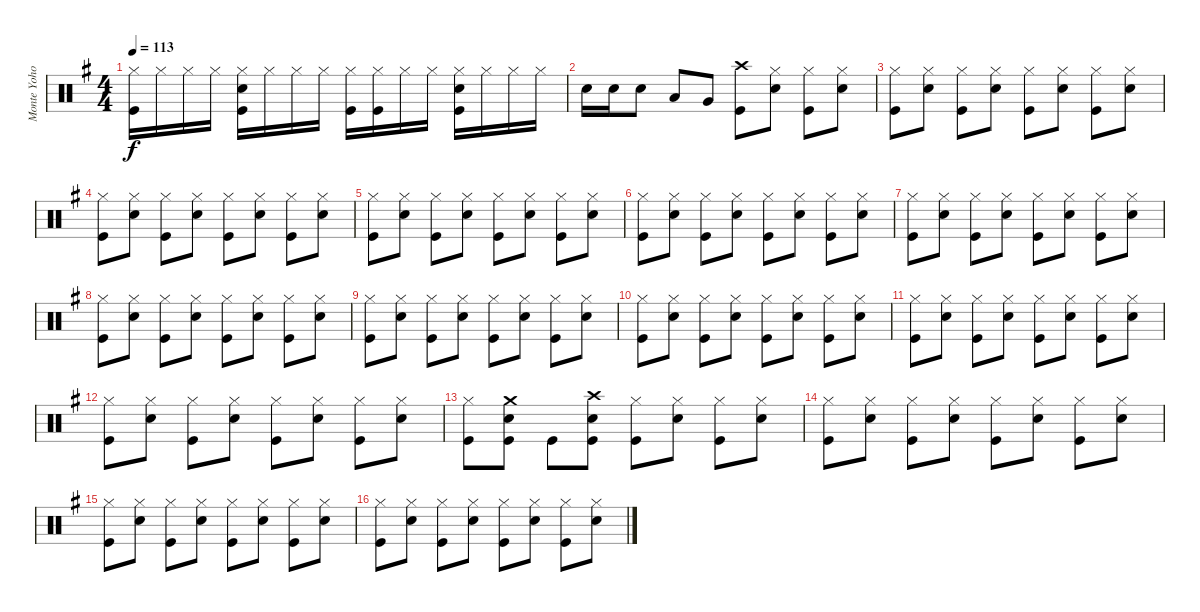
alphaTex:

\track ("Monte Yoho Drums" "Monte Yoho") {instrument percussion}
\staff {score}
\articulation defaults
\ts (4 4)
\tempo 113
\clef neutral
\ks eminor
("Hi-Hat (closed)" "Kick (hit)").16{dy f} "Hi-Hat (closed)".16 "Hi-Hat (closed)".16 "Hi-Hat (closed)".16 ("Hi-Hat (closed)" "Snare (hit) 2" "Kick (hit)").16 "Hi-Hat (closed)".16 "Hi-Hat (closed)".16 "Hi-Hat (closed)".16 ("Hi-Hat (closed)" "Kick (hit)").16 ("Hi-Hat (closed)" "Kick (hit)").16 "Hi-Hat (closed)".16 "Hi-Hat (closed)".16 ("Hi-Hat (closed)" "Snare (hit) 2" "Kick (hit)").16 "Hi-Hat (closed)".16 "Hi-Hat (closed)".16 "Hi-Hat (closed)".16 |
"Snare (hit) 2".16 "Snare (hit) 2".16 "Snare (hit) 2".8 "Low Tom (hit)".8 "Very Low Tom (hit)".8 ("Crash high (hit)" "Kick (hit)").8 ("Hi-Hat (closed)" "Snare (hit) 2").8 ("Hi-Hat (closed)" "Kick (hit)").8 ("Hi-Hat (closed)" "Snare (hit) 2").8 |
("Hi-Hat (closed)" "Kick (hit)").8 ("Hi-Hat (closed)" "Snare (hit) 2").8 ("Hi-Hat (closed)" "Kick (hit)").8 ("Hi-Hat (closed)" "Snare (hit) 2").8 ("Hi-Hat (closed)" "Kick (hit)").8 ("Hi-Hat (closed)" "Snare (hit) 2").8 ("Hi-Hat (closed)" "Kick (hit)").8 ("Hi-Hat (closed)" "Snare (hit) 2").8 |
("Hi-Hat (closed)" "Kick (hit)").8 ("Hi-Hat (closed)" "Snare (hit) 2").8 ("Hi-Hat (closed)" "Kick (hit)").8 ("Hi-Hat (closed)" "Snare (hit) 2").8 ("Hi-Hat (closed)" "Kick (hit)").8 ("Hi-Hat (closed)" "Snare (hit) 2").8 ("Hi-Hat (closed)" "Kick (hit)").8 ("Hi-Hat (closed)" "Snare (hit) 2").8 |
("Hi-Hat (closed)" "Kick (hit)").8 ("Hi-Hat (closed)" "Snare (hit) 2").8 ("Hi-Hat (closed)" "Kick (hit)").8 ("Hi-Hat (closed)" "Snare (hit) 2").8 ("Hi-Hat (closed)" "Kick (hit)").8 ("Hi-Hat (closed)" "Snare (hit) 2").8 ("Hi-Hat (closed)" "Kick (hit)").8 ("Hi-Hat (closed)" "Snare (hit) 2").8 |
("Hi-Hat (closed)" "Kick (hit)").8 ("Hi-Hat (closed)" "Snare (hit) 2").8 ("Hi-Hat (closed)" "Kick (hit)").8 ("Hi-Hat (closed)" "Snare (hit) 2").8 ("Hi-Hat (closed)" "Kick (hit)").8 ("Hi-Hat (closed)" "Snare (hit) 2").8 ("Hi-Hat (closed)" "Kick (hit)").8 ("Hi-Hat (closed)" "Snare (hit) 2").8 |
("Hi-Hat (closed)" "Kick (hit)").8 ("Hi-Hat (closed)" "Snare (hit) 2").8 ("Hi-Hat (closed)" "Kick (hit)").8 ("Hi-Hat (closed)" "Snare (hit) 2").8 ("Hi-Hat (closed)" "Kick (hit)").8 ("Hi-Hat (closed)" "Snare (hit) 2").8 ("Hi-Hat (closed)" "Kick (hit)").8 ("Hi-Hat (closed)" "Snare (hit) 2").8 |
("Hi-Hat (closed)" "Kick (hit)").8 ("Hi-Hat (closed)" "Snare (hit) 2").8 ("Hi-Hat (closed)" "Kick (hit)").8 ("Hi-Hat (closed)" "Snare (hit) 2").8 ("Hi-Hat (closed)" "Kick (hit)").8 ("Hi-Hat (closed)" "Snare (hit) 2").8 ("Hi-Hat (closed)" "Kick (hit)").8 ("Hi-Hat (closed)" "Snare (hit) 2").8 |
("Hi-Hat (closed)" "Kick (hit)").8 ("Hi-Hat (closed)" "Snare (hit) 2").8 ("Hi-Hat (closed)" "Kick (hit)").8 ("Hi-Hat (closed)" "Snare (hit) 2").8 ("Hi-Hat (closed)" "Kick (hit)").8 ("Hi-Hat (closed)" "Snare (hit) 2").8 ("Hi-Hat (closed)" "Kick (hit)").8 ("Hi-Hat (closed)" "Snare (hit) 2").8 |
("Hi-Hat (closed)" "Kick (hit)").8 ("Hi-Hat (closed)" "Snare (hit) 2").8 ("Hi-Hat (closed)" "Kick (hit)").8 ("Hi-Hat (closed)" "Snare (hit) 2").8 ("Hi-Hat (closed)" "Kick (hit)").8 ("Hi-Hat (closed)" "Snare (hit) 2").8 ("Hi-Hat (closed)" "Kick (hit)").8 ("Hi-Hat (closed)" "Snare (hit) 2").8 |
("Hi-Hat (closed)" "Kick (hit)").8 ("Hi-Hat (closed)" "Snare (hit) 2").8 ("Hi-Hat (closed)" "Kick (hit)").8 ("Hi-Hat (closed)" "Snare (hit) 2").8 ("Hi-Hat (closed)" "Kick (hit)").8 ("Hi-Hat (closed)" "Snare (hit) 2").8 ("Hi-Hat (closed)" "Kick (hit)").8 ("Hi-Hat (closed)" "Snare (hit) 2").8 |
("Hi-Hat (closed)" "Kick (hit)").8 ("Hi-Hat (closed)" "Snare (hit) 2").8 ("Hi-Hat (closed)" "Kick (hit)").8 ("Hi-Hat (closed)" "Snare (hit) 2").8 ("Hi-Hat (closed)" "Kick (hit)").8 ("Hi-Hat (closed)" "Snare (hit) 2").8 ("Hi-Hat (closed)" "Kick (hit)").8 ("Hi-Hat (closed)" "Snare (hit) 2").8 |
("Hi-Hat (closed)" "Kick (hit)").8 ("Crash medium (hit)" "Snare (hit) 2" "Kick (hit)").8 "Kick (hit)".8 ("Crash high (hit)" "Snare (hit) 2" "Kick (hit)").8 ("Hi-Hat (closed)" "Kick (hit)").8 ("Hi-Hat (closed)" "Snare (hit) 2").8 ("Hi-Hat (closed)" "Kick (hit)").8 ("Hi-Hat (closed)" "Snare (hit) 2").8 |
("Hi-Hat (closed)" "Kick (hit)").8 ("Hi-Hat (closed)" "Snare (hit) 2").8 ("Hi-Hat (closed)" "Kick (hit)").8 ("Hi-Hat (closed)" "Snare (hit) 2").8 ("Hi-Hat (closed)" "Kick (hit)").8 ("Hi-Hat (closed)" "Snare (hit) 2").8 ("Hi-Hat (closed)" "Kick (hit)").8 ("Hi-Hat (closed)" "Snare (hit) 2").8 |
("Hi-Hat (closed)" "Kick (hit)").8 ("Hi-Hat (closed)" "Snare (hit) 2").8 ("Hi-Hat (closed)" "Kick (hit)").8 ("Hi-Hat (closed)" "Snare (hit) 2").8 ("Hi-Hat (closed)" "Kick (hit)").8 ("Hi-Hat (closed)" "Snare (hit) 2").8 ("Hi-Hat (closed)" "Kick (hit)").8 ("Hi-Hat (closed)" "Snare (hit) 2").8 |
("Hi-Hat (closed)" "Kick (hit)").8 ("Hi-Hat (closed)" "Snare (hit) 2").8 ("Hi-Hat (closed)" "Kick (hit)").8 ("Hi-Hat (closed)" "Snare (hit) 2").8 ("Hi-Hat (closed)" "Kick (hit)").8 ("Hi-Hat (closed)" "Snare (hit) 2").8 ("Hi-Hat (closed)" "Kick (hit)").8 ("Hi-Hat (closed)" "Snare (hit) 2").8
